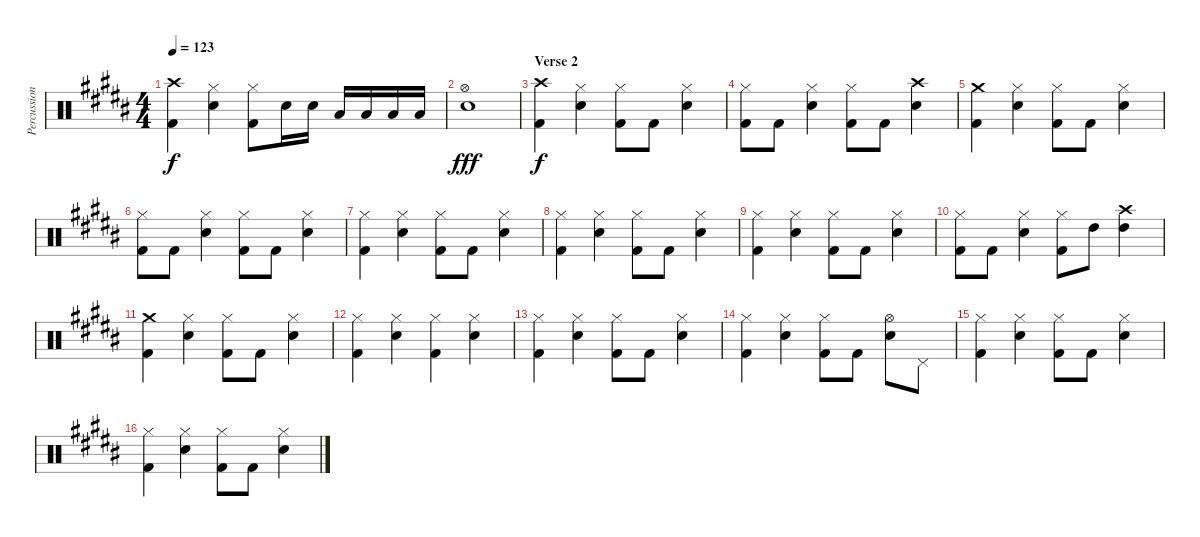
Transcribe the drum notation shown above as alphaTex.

\track ("Percussion" "Percussion") {instrument percussion}
\staff {score}
\articulation defaults
\ts (4 4)
\tempo 123
\clef neutral
\ks b
("Crash high (hit)" "Kick (hit) 2").4{dy f} ("Hi-Hat (closed)" "Snare (hit) 2").4 ("Hi-Hat (closed)" "Kick (hit) 2").8 "Snare (hit) 2".16 "Snare (hit) 2".16 "Low Tom (hit)".16 "Low Tom (hit)".16 "Low Tom (hit)".16 "Low Tom (hit)".16 |
("Hi-Hat (open)" "Snare (hit) 2").1{dy fff} |
\section ("" "Verse 2")
("Crash high (hit)" "Kick (hit) 2").4{dy f} ("Hi-Hat (closed)" "Snare (hit) 2").4 ("Hi-Hat (closed)" "Kick (hit) 2").8 "Kick (hit) 2".8 ("Hi-Hat (closed)" "Snare (hit) 2").4 |
("Hi-Hat (closed)" "Kick (hit) 2").8 "Kick (hit) 2".8 ("Hi-Hat (closed)" "Snare (hit) 2").4 ("Hi-Hat (closed)" "Kick (hit) 2").8 "Kick (hit) 2".8 ("Crash high (hit)" "Snare (hit) 2").4 |
("Crash medium (hit)" "Kick (hit) 2").4 ("Hi-Hat (closed)" "Snare (hit) 2").4 ("Hi-Hat (closed)" "Kick (hit) 2").8 "Kick (hit) 2".8 ("Hi-Hat (closed)" "Snare (hit) 2").4 |
("Hi-Hat (closed)" "Kick (hit) 2").8 "Kick (hit) 2".8 ("Hi-Hat (closed)" "Snare (hit) 2").4 ("Hi-Hat (closed)" "Kick (hit) 2").8 "Kick (hit) 2".8 ("Hi-Hat (closed)" "Snare (hit) 2").4 |
("Hi-Hat (closed)" "Kick (hit) 2").4 ("Hi-Hat (closed)" "Snare (hit) 2").4 ("Hi-Hat (closed)" "Kick (hit) 2").8 "Kick (hit) 2".8 ("Hi-Hat (closed)" "Snare (hit) 2").4 |
("Hi-Hat (closed)" "Kick (hit) 2").4 ("Hi-Hat (closed)" "Snare (hit) 2").4 ("Hi-Hat (closed)" "Kick (hit) 2").8 "Kick (hit) 2".8 ("Hi-Hat (closed)" "Snare (hit) 2").4 |
("Hi-Hat (closed)" "Kick (hit) 2").4 ("Hi-Hat (closed)" "Snare (hit) 2").4 ("Hi-Hat (closed)" "Kick (hit) 2").8 "Kick (hit) 2".8 ("Hi-Hat (closed)" "Snare (hit) 2").4 |
("Hi-Hat (closed)" "Kick (hit) 2").8 "Kick (hit) 2".8 ("Hi-Hat (closed)" "Snare (hit) 2").4 ("Hi-Hat (closed)" "Kick (hit) 2").8 "High Tom (hit)".8 ("Crash high (hit)" "High Tom (hit)").4 |
("Crash medium (hit)" "Kick (hit) 2").4 ("Hi-Hat (closed)" "Snare (hit) 2").4 ("Hi-Hat (closed)" "Kick (hit) 2").8 "Kick (hit) 2".8 ("Hi-Hat (closed)" "Snare (hit) 2").4 |
("Hi-Hat (closed)" "Kick (hit) 2").4 ("Hi-Hat (closed)" "Snare (hit) 2").4 ("Hi-Hat (closed)" "Kick (hit) 2").4 ("Hi-Hat (closed)" "Snare (hit) 2").4 |
("Hi-Hat (closed)" "Kick (hit) 2").4 ("Hi-Hat (closed)" "Snare (hit) 2").4 ("Hi-Hat (closed)" "Kick (hit) 2").8 "Kick (hit) 2".8 ("Hi-Hat (closed)" "Snare (hit) 2").4 |
("Hi-Hat (closed)" "Kick (hit) 2").4 ("Hi-Hat (closed)" "Snare (hit) 2").4 ("Hi-Hat (closed)" "Kick (hit) 2").8 "Kick (hit) 2".8 ("Hi-Hat (open)" "Snare (hit) 2").8 "Pedal Hi-Hat (hit)".8 |
("Hi-Hat (closed)" "Kick (hit) 2").4 ("Hi-Hat (closed)" "Snare (hit) 2").4 ("Hi-Hat (closed)" "Kick (hit) 2").8 "Kick (hit) 2".8 ("Hi-Hat (closed)" "Snare (hit) 2").4 |
("Hi-Hat (closed)" "Kick (hit) 2").4 ("Hi-Hat (closed)" "Snare (hit) 2").4 ("Hi-Hat (closed)" "Kick (hit) 2").8 "Kick (hit) 2".8 ("Hi-Hat (closed)" "Snare (hit) 2").4
